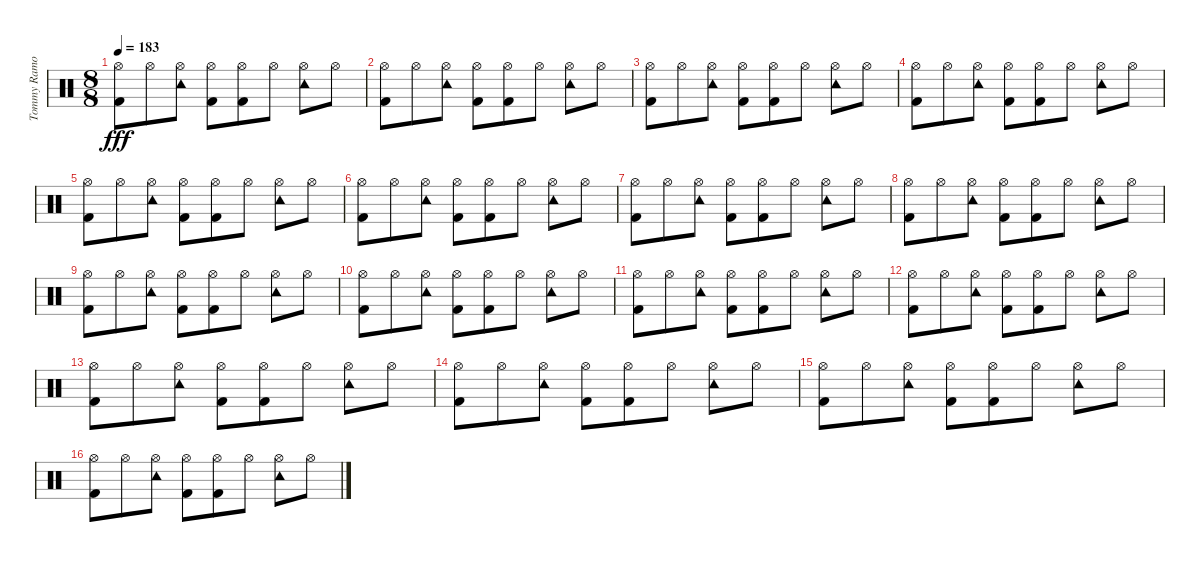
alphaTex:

\track ("Tommy Ramone - Drums" "Tommy Ramo") {instrument percussion}
\staff {score}
\articulation defaults
\ts (8 8)
\tempo 183
\clef neutral
\ks c
("Kick (hit) 2" "Hi-Hat (open)").8{dy fff} "Hi-Hat (open)".8 ("Tambourine (hit)" "Hi-Hat (open)").8 ("Kick (hit) 2" "Hi-Hat (open)").8 ("Kick (hit) 2" "Hi-Hat (open)").8 "Hi-Hat (open)".8 ("Tambourine (hit)" "Hi-Hat (open)").8 "Hi-Hat (open)".8 |
("Kick (hit) 2" "Hi-Hat (open)").8 "Hi-Hat (open)".8 ("Tambourine (hit)" "Hi-Hat (open)").8 ("Kick (hit) 2" "Hi-Hat (open)").8 ("Kick (hit) 2" "Hi-Hat (open)").8 "Hi-Hat (open)".8 ("Tambourine (hit)" "Hi-Hat (open)").8 "Hi-Hat (open)".8 |
("Kick (hit) 2" "Hi-Hat (open)").8 "Hi-Hat (open)".8 ("Tambourine (hit)" "Hi-Hat (open)").8 ("Kick (hit) 2" "Hi-Hat (open)").8 ("Kick (hit) 2" "Hi-Hat (open)").8 "Hi-Hat (open)".8 ("Tambourine (hit)" "Hi-Hat (open)").8 "Hi-Hat (open)".8 |
("Kick (hit) 2" "Hi-Hat (open)").8 "Hi-Hat (open)".8 ("Tambourine (hit)" "Hi-Hat (open)").8 ("Kick (hit) 2" "Hi-Hat (open)").8 ("Kick (hit) 2" "Hi-Hat (open)").8 "Hi-Hat (open)".8 ("Tambourine (hit)" "Hi-Hat (open)").8 "Hi-Hat (open)".8 |
("Kick (hit) 2" "Hi-Hat (open)").8 "Hi-Hat (open)".8 ("Tambourine (hit)" "Hi-Hat (open)").8 ("Kick (hit) 2" "Hi-Hat (open)").8 ("Kick (hit) 2" "Hi-Hat (open)").8 "Hi-Hat (open)".8 ("Tambourine (hit)" "Hi-Hat (open)").8 "Hi-Hat (open)".8 |
("Kick (hit) 2" "Hi-Hat (open)").8 "Hi-Hat (open)".8 ("Tambourine (hit)" "Hi-Hat (open)").8 ("Kick (hit) 2" "Hi-Hat (open)").8 ("Kick (hit) 2" "Hi-Hat (open)").8 "Hi-Hat (open)".8 ("Tambourine (hit)" "Hi-Hat (open)").8 "Hi-Hat (open)".8 |
("Kick (hit) 2" "Hi-Hat (open)").8 "Hi-Hat (open)".8 ("Tambourine (hit)" "Hi-Hat (open)").8 ("Kick (hit) 2" "Hi-Hat (open)").8 ("Kick (hit) 2" "Hi-Hat (open)").8 "Hi-Hat (open)".8 ("Tambourine (hit)" "Hi-Hat (open)").8 "Hi-Hat (open)".8 |
("Kick (hit) 2" "Hi-Hat (open)").8 "Hi-Hat (open)".8 ("Tambourine (hit)" "Hi-Hat (open)").8 ("Kick (hit) 2" "Hi-Hat (open)").8 ("Kick (hit) 2" "Hi-Hat (open)").8 "Hi-Hat (open)".8 ("Tambourine (hit)" "Hi-Hat (open)").8 "Hi-Hat (open)".8 |
("Kick (hit) 2" "Hi-Hat (open)").8 "Hi-Hat (open)".8 ("Tambourine (hit)" "Hi-Hat (open)").8 ("Kick (hit) 2" "Hi-Hat (open)").8 ("Kick (hit) 2" "Hi-Hat (open)").8 "Hi-Hat (open)".8 ("Tambourine (hit)" "Hi-Hat (open)").8 "Hi-Hat (open)".8 |
("Kick (hit) 2" "Hi-Hat (open)").8 "Hi-Hat (open)".8 ("Tambourine (hit)" "Hi-Hat (open)").8 ("Kick (hit) 2" "Hi-Hat (open)").8 ("Kick (hit) 2" "Hi-Hat (open)").8 "Hi-Hat (open)".8 ("Tambourine (hit)" "Hi-Hat (open)").8 "Hi-Hat (open)".8 |
("Kick (hit) 2" "Hi-Hat (open)").8 "Hi-Hat (open)".8 ("Tambourine (hit)" "Hi-Hat (open)").8 ("Kick (hit) 2" "Hi-Hat (open)").8 ("Kick (hit) 2" "Hi-Hat (open)").8 "Hi-Hat (open)".8 ("Tambourine (hit)" "Hi-Hat (open)").8 "Hi-Hat (open)".8 |
("Kick (hit) 2" "Hi-Hat (open)").8 "Hi-Hat (open)".8 ("Tambourine (hit)" "Hi-Hat (open)").8 ("Kick (hit) 2" "Hi-Hat (open)").8 ("Kick (hit) 2" "Hi-Hat (open)").8 "Hi-Hat (open)".8 ("Tambourine (hit)" "Hi-Hat (open)").8 "Hi-Hat (open)".8 |
("Kick (hit) 2" "Hi-Hat (open)").8 "Hi-Hat (open)".8 ("Tambourine (hit)" "Hi-Hat (open)").8 ("Kick (hit) 2" "Hi-Hat (open)").8 ("Kick (hit) 2" "Hi-Hat (open)").8 "Hi-Hat (open)".8 ("Tambourine (hit)" "Hi-Hat (open)").8 "Hi-Hat (open)".8 |
("Kick (hit) 2" "Hi-Hat (open)").8 "Hi-Hat (open)".8 ("Tambourine (hit)" "Hi-Hat (open)").8 ("Kick (hit) 2" "Hi-Hat (open)").8 ("Kick (hit) 2" "Hi-Hat (open)").8 "Hi-Hat (open)".8 ("Tambourine (hit)" "Hi-Hat (open)").8 "Hi-Hat (open)".8 |
("Kick (hit) 2" "Hi-Hat (open)").8 "Hi-Hat (open)".8 ("Tambourine (hit)" "Hi-Hat (open)").8 ("Kick (hit) 2" "Hi-Hat (open)").8 ("Kick (hit) 2" "Hi-Hat (open)").8 "Hi-Hat (open)".8 ("Tambourine (hit)" "Hi-Hat (open)").8 "Hi-Hat (open)".8 |
("Kick (hit) 2" "Hi-Hat (open)").8 "Hi-Hat (open)".8 ("Tambourine (hit)" "Hi-Hat (open)").8 ("Kick (hit) 2" "Hi-Hat (open)").8 ("Kick (hit) 2" "Hi-Hat (open)").8 "Hi-Hat (open)".8 ("Tambourine (hit)" "Hi-Hat (open)").8 "Hi-Hat (open)".8
